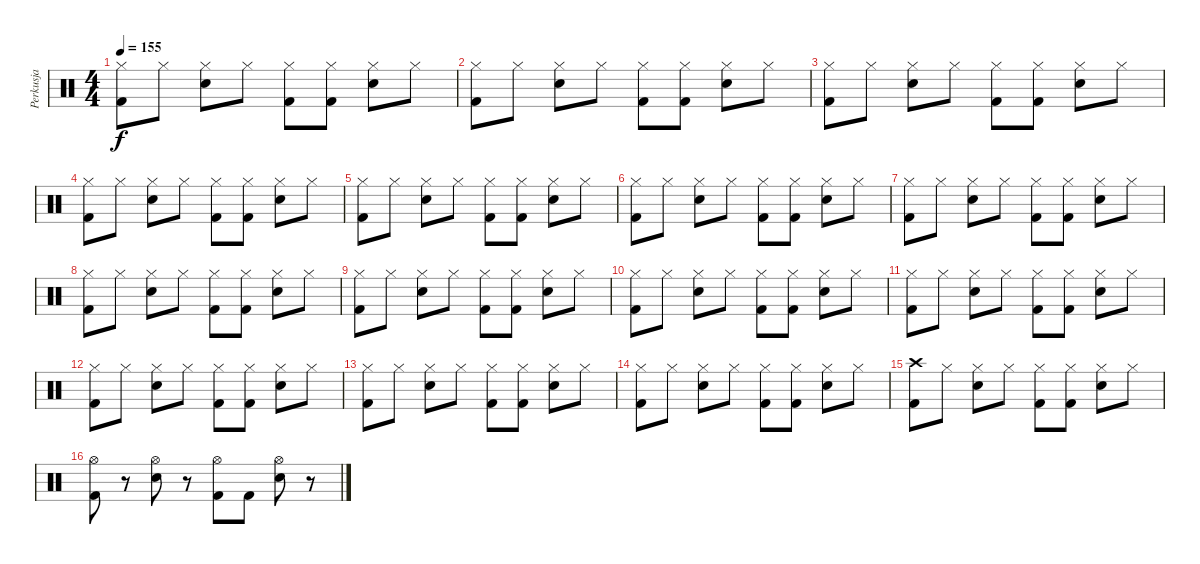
\track ("Perkusja" "Perkusja") {instrument percussion}
\staff {score}
\articulation defaults
\ts (4 4)
\tempo 155
\clef neutral
\ks c
("Hi-Hat (closed)" "Kick (hit) 2").8{dy f} "Hi-Hat (closed)".8 ("Hi-Hat (closed)" "Electric Snare (hit)").8 "Hi-Hat (closed)".8 ("Hi-Hat (closed)" "Kick (hit) 2").8 ("Hi-Hat (closed)" "Kick (hit) 2").8 ("Hi-Hat (closed)" "Electric Snare (hit)").8 "Hi-Hat (closed)".8 |
("Hi-Hat (closed)" "Kick (hit) 2").8 "Hi-Hat (closed)".8 ("Hi-Hat (closed)" "Electric Snare (hit)").8 "Hi-Hat (closed)".8 ("Hi-Hat (closed)" "Kick (hit) 2").8 ("Hi-Hat (closed)" "Kick (hit) 2").8 ("Hi-Hat (closed)" "Electric Snare (hit)").8 "Hi-Hat (closed)".8 |
("Hi-Hat (closed)" "Kick (hit) 2").8 "Hi-Hat (closed)".8 ("Hi-Hat (closed)" "Electric Snare (hit)").8 "Hi-Hat (closed)".8 ("Hi-Hat (closed)" "Kick (hit) 2").8 ("Hi-Hat (closed)" "Kick (hit) 2").8 ("Hi-Hat (closed)" "Electric Snare (hit)").8 "Hi-Hat (closed)".8 |
("Hi-Hat (closed)" "Kick (hit) 2").8 "Hi-Hat (closed)".8 ("Hi-Hat (closed)" "Electric Snare (hit)").8 "Hi-Hat (closed)".8 ("Hi-Hat (closed)" "Kick (hit) 2").8 ("Hi-Hat (closed)" "Kick (hit) 2").8 ("Hi-Hat (closed)" "Electric Snare (hit)").8 "Hi-Hat (closed)".8 |
("Hi-Hat (closed)" "Kick (hit) 2").8 "Hi-Hat (closed)".8 ("Hi-Hat (closed)" "Electric Snare (hit)").8 "Hi-Hat (closed)".8 ("Hi-Hat (closed)" "Kick (hit) 2").8 ("Hi-Hat (closed)" "Kick (hit) 2").8 ("Hi-Hat (closed)" "Electric Snare (hit)").8 "Hi-Hat (closed)".8 |
("Hi-Hat (closed)" "Kick (hit) 2").8 "Hi-Hat (closed)".8 ("Hi-Hat (closed)" "Electric Snare (hit)").8 "Hi-Hat (closed)".8 ("Hi-Hat (closed)" "Kick (hit) 2").8 ("Hi-Hat (closed)" "Kick (hit) 2").8 ("Hi-Hat (closed)" "Electric Snare (hit)").8 "Hi-Hat (closed)".8 |
("Hi-Hat (closed)" "Kick (hit) 2").8 "Hi-Hat (closed)".8 ("Hi-Hat (closed)" "Electric Snare (hit)").8 "Hi-Hat (closed)".8 ("Hi-Hat (closed)" "Kick (hit) 2").8 ("Hi-Hat (closed)" "Kick (hit) 2").8 ("Hi-Hat (closed)" "Electric Snare (hit)").8 "Hi-Hat (closed)".8 |
("Hi-Hat (closed)" "Kick (hit) 2").8 "Hi-Hat (closed)".8 ("Hi-Hat (closed)" "Electric Snare (hit)").8 "Hi-Hat (closed)".8 ("Hi-Hat (closed)" "Kick (hit) 2").8 ("Hi-Hat (closed)" "Kick (hit) 2").8 ("Hi-Hat (closed)" "Electric Snare (hit)").8 "Hi-Hat (closed)".8 |
("Hi-Hat (closed)" "Kick (hit) 2").8 "Hi-Hat (closed)".8 ("Hi-Hat (closed)" "Electric Snare (hit)").8 "Hi-Hat (closed)".8 ("Hi-Hat (closed)" "Kick (hit) 2").8 ("Hi-Hat (closed)" "Kick (hit) 2").8 ("Hi-Hat (closed)" "Electric Snare (hit)").8 "Hi-Hat (closed)".8 |
("Hi-Hat (closed)" "Kick (hit) 2").8 "Hi-Hat (closed)".8 ("Hi-Hat (closed)" "Electric Snare (hit)").8 "Hi-Hat (closed)".8 ("Hi-Hat (closed)" "Kick (hit) 2").8 ("Hi-Hat (closed)" "Kick (hit) 2").8 ("Hi-Hat (closed)" "Electric Snare (hit)").8 "Hi-Hat (closed)".8 |
("Hi-Hat (closed)" "Kick (hit) 2").8 "Hi-Hat (closed)".8 ("Hi-Hat (closed)" "Electric Snare (hit)").8 "Hi-Hat (closed)".8 ("Hi-Hat (closed)" "Kick (hit) 2").8 ("Hi-Hat (closed)" "Kick (hit) 2").8 ("Hi-Hat (closed)" "Electric Snare (hit)").8 "Hi-Hat (closed)".8 |
("Hi-Hat (closed)" "Kick (hit) 2").8 "Hi-Hat (closed)".8 ("Hi-Hat (closed)" "Electric Snare (hit)").8 "Hi-Hat (closed)".8 ("Hi-Hat (closed)" "Kick (hit) 2").8 ("Hi-Hat (closed)" "Kick (hit) 2").8 ("Hi-Hat (closed)" "Electric Snare (hit)").8 "Hi-Hat (closed)".8 |
("Hi-Hat (closed)" "Kick (hit) 2").8 "Hi-Hat (closed)".8 ("Hi-Hat (closed)" "Electric Snare (hit)").8 "Hi-Hat (closed)".8 ("Hi-Hat (closed)" "Kick (hit) 2").8 ("Hi-Hat (closed)" "Kick (hit) 2").8 ("Hi-Hat (closed)" "Electric Snare (hit)").8 "Hi-Hat (closed)".8 |
("Hi-Hat (closed)" "Kick (hit) 2").8 "Hi-Hat (closed)".8 ("Hi-Hat (closed)" "Electric Snare (hit)").8 "Hi-Hat (closed)".8 ("Hi-Hat (closed)" "Kick (hit) 2").8 ("Hi-Hat (closed)" "Kick (hit) 2").8 ("Hi-Hat (closed)" "Electric Snare (hit)").8 "Hi-Hat (closed)".8 |
("Crash high (hit)" "Kick (hit) 2").8 "Hi-Hat (closed)".8 ("Hi-Hat (closed)" "Electric Snare (hit)").8 "Hi-Hat (closed)".8 ("Hi-Hat (closed)" "Kick (hit) 2").8 ("Hi-Hat (closed)" "Kick (hit) 2").8 ("Hi-Hat (closed)" "Electric Snare (hit)").8 "Hi-Hat (closed)".8 |
("Hi-Hat (open)" "Kick (hit) 2").8 r.8 ("Hi-Hat (open)" "Electric Snare (hit)").8 r.8 ("Hi-Hat (open)" "Kick (hit) 2").8 "Kick (hit) 2".8 ("Hi-Hat (open)" "Electric Snare (hit)").8 r.8
